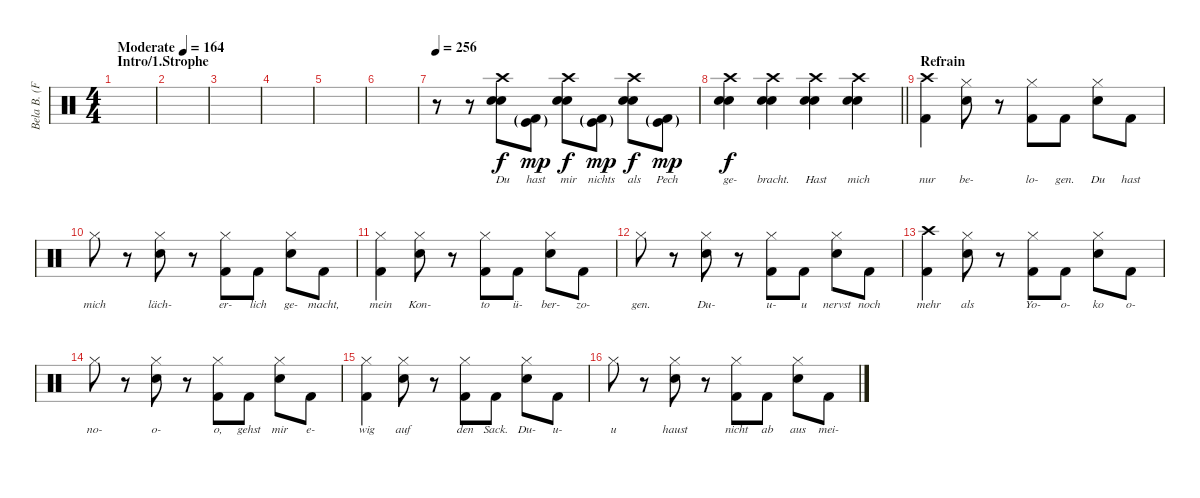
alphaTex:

\track ("Bela B. (Felsenheimer)" "Bela B. (F") {instrument percussion}
\staff {score}
\articulation defaults
\ts (4 4)
\section ("" "Intro/1.Strophe")
\tempo (164 "Moderate")
\clef neutral
\ks c
|
|
|
|
|
|
\tempo 256
r.8 r.8 ("Electric Snare (hit)" "Snare (hit) 2" "Crash high (hit)").8{lyrics (0 "Du") lyrics (1 "") lyrics (2 "") lyrics (3 "") lyrics (4 "")} ("Kick (hit)"{g} "Kick (hit) 2"{g}).8{lyrics (0 "hast") lyrics (1 "") lyrics (2 "") lyrics (3 "") lyrics (4 "") dy mp} ("Electric Snare (hit)" "Snare (hit) 2" "Crash high (hit)").8{lyrics (0 "mir") lyrics (1 "") lyrics (2 "") lyrics (3 "") lyrics (4 "") dy f} ("Kick (hit)"{g} "Kick (hit) 2"{g}).8{lyrics (0 "nichts") lyrics (1 "") lyrics (2 "") lyrics (3 "") lyrics (4 "") dy mp} ("Electric Snare (hit)" "Snare (hit) 2" "Crash high (hit)").8{lyrics (0 "als") lyrics (1 "") lyrics (2 "") lyrics (3 "") lyrics (4 "") dy f} ("Kick (hit)"{g} "Kick (hit) 2"{g}).8{lyrics (0 "Pech") lyrics (1 "") lyrics (2 "") lyrics (3 "") lyrics (4 "") dy mp} |
\barLineRight lightlight
("Electric Snare (hit)" "Snare (hit) 2" "Crash high (hit)").4{lyrics (0 "ge-") lyrics (1 "") lyrics (2 "") lyrics (3 "") lyrics (4 "") dy f} ("Electric Snare (hit)" "Snare (hit) 2" "Crash high (hit)").4{lyrics (0 "bracht.") lyrics (1 "") lyrics (2 "") lyrics (3 "") lyrics (4 "")} ("Electric Snare (hit)" "Snare (hit) 2" "Crash high (hit)").4{lyrics (0 "Hast") lyrics (1 "") lyrics (2 "") lyrics (3 "") lyrics (4 "")} ("Electric Snare (hit)" "Snare (hit) 2" "Crash high (hit)").4{lyrics (0 "mich") lyrics (1 "") lyrics (2 "") lyrics (3 "") lyrics (4 "")} |
\section ("" "Refrain")
("Crash high (hit)" "Kick (hit) 2").4{lyrics (0 "nur") lyrics (1 "") lyrics (2 "") lyrics (3 "") lyrics (4 "")} ("Hi-Hat (closed)" "Snare (hit) 2").8{lyrics (0 "be-") lyrics (1 "") lyrics (2 "") lyrics (3 "") lyrics (4 "")} r.8 ("Hi-Hat (closed)" "Kick (hit) 2").8{lyrics (0 "lo-") lyrics (1 "") lyrics (2 "") lyrics (3 "") lyrics (4 "")} "Kick (hit) 2".8{lyrics (0 "gen.") lyrics (1 "") lyrics (2 "") lyrics (3 "") lyrics (4 "")} ("Hi-Hat (closed)" "Snare (hit) 2").8{lyrics (0 "Du") lyrics (1 "") lyrics (2 "") lyrics (3 "") lyrics (4 "")} "Kick (hit) 2".8{lyrics (0 "hast") lyrics (1 "") lyrics (2 "") lyrics (3 "") lyrics (4 "")} |
"Hi-Hat (closed)".8{lyrics (0 "mich") lyrics (1 "") lyrics (2 "") lyrics (3 "") lyrics (4 "")} r.8 ("Hi-Hat (closed)" "Snare (hit) 2").8{lyrics (0 "läch-") lyrics (1 "") lyrics (2 "") lyrics (3 "") lyrics (4 "")} r.8 ("Hi-Hat (closed)" "Kick (hit) 2").8{lyrics (0 "er-") lyrics (1 "") lyrics (2 "") lyrics (3 "") lyrics (4 "")} "Kick (hit) 2".8{lyrics (0 "lich") lyrics (1 "") lyrics (2 "") lyrics (3 "") lyrics (4 "")} ("Hi-Hat (closed)" "Snare (hit) 2").8{lyrics (0 "ge-") lyrics (1 "") lyrics (2 "") lyrics (3 "") lyrics (4 "")} "Kick (hit) 2".8{lyrics (0 "macht,") lyrics (1 "") lyrics (2 "") lyrics (3 "") lyrics (4 "")} |
("Hi-Hat (closed)" "Kick (hit) 2").4{lyrics (0 "mein") lyrics (1 "") lyrics (2 "") lyrics (3 "") lyrics (4 "")} ("Hi-Hat (closed)" "Snare (hit) 2").8{lyrics (0 "Kon-") lyrics (1 "") lyrics (2 "") lyrics (3 "") lyrics (4 "")} r.8 ("Hi-Hat (closed)" "Kick (hit) 2").8{lyrics (0 "to") lyrics (1 "") lyrics (2 "") lyrics (3 "") lyrics (4 "")} "Kick (hit) 2".8{lyrics (0 "ü-") lyrics (1 "") lyrics (2 "") lyrics (3 "") lyrics (4 "")} ("Hi-Hat (closed)" "Snare (hit) 2").8{lyrics (0 "ber-") lyrics (1 "") lyrics (2 "") lyrics (3 "") lyrics (4 "")} "Kick (hit) 2".8{lyrics (0 "zo-") lyrics (1 "") lyrics (2 "") lyrics (3 "") lyrics (4 "")} |
"Hi-Hat (closed)".8{lyrics (0 "gen.") lyrics (1 "") lyrics (2 "") lyrics (3 "") lyrics (4 "")} r.8 ("Hi-Hat (closed)" "Snare (hit) 2").8{lyrics (0 "Du-") lyrics (1 "") lyrics (2 "") lyrics (3 "") lyrics (4 "")} r.8 ("Hi-Hat (closed)" "Kick (hit) 2").8{lyrics (0 "u-") lyrics (1 "") lyrics (2 "") lyrics (3 "") lyrics (4 "")} "Kick (hit) 2".8{lyrics (0 "u") lyrics (1 "") lyrics (2 "") lyrics (3 "") lyrics (4 "")} ("Hi-Hat (closed)" "Snare (hit) 2").8{lyrics (0 "nervst") lyrics (1 "") lyrics (2 "") lyrics (3 "") lyrics (4 "")} "Kick (hit) 2".8{lyrics (0 "noch") lyrics (1 "") lyrics (2 "") lyrics (3 "") lyrics (4 "")} |
("Crash high (hit)" "Kick (hit) 2").4{lyrics (0 "mehr") lyrics (1 "") lyrics (2 "") lyrics (3 "") lyrics (4 "")} ("Hi-Hat (closed)" "Snare (hit) 2").8{lyrics (0 "als") lyrics (1 "") lyrics (2 "") lyrics (3 "") lyrics (4 "")} r.8 ("Hi-Hat (closed)" "Kick (hit) 2").8{lyrics (0 "Yo-") lyrics (1 "") lyrics (2 "") lyrics (3 "") lyrics (4 "")} "Kick (hit) 2".8{lyrics (0 "o-") lyrics (1 "") lyrics (2 "") lyrics (3 "") lyrics (4 "")} ("Hi-Hat (closed)" "Snare (hit) 2").8{lyrics (0 "ko") lyrics (1 "") lyrics (2 "") lyrics (3 "") lyrics (4 "")} "Kick (hit) 2".8{lyrics (0 "o-") lyrics (1 "") lyrics (2 "") lyrics (3 "") lyrics (4 "")} |
"Hi-Hat (closed)".8{lyrics (0 "no-") lyrics (1 "") lyrics (2 "") lyrics (3 "") lyrics (4 "")} r.8 ("Hi-Hat (closed)" "Snare (hit) 2").8{lyrics (0 "o-") lyrics (1 "") lyrics (2 "") lyrics (3 "") lyrics (4 "")} r.8 ("Hi-Hat (closed)" "Kick (hit) 2").8{lyrics (0 "o,") lyrics (1 "") lyrics (2 "") lyrics (3 "") lyrics (4 "")} "Kick (hit) 2".8{lyrics (0 "gehst") lyrics (1 "") lyrics (2 "") lyrics (3 "") lyrics (4 "")} ("Hi-Hat (closed)" "Snare (hit) 2").8{lyrics (0 "mir") lyrics (1 "") lyrics (2 "") lyrics (3 "") lyrics (4 "")} "Kick (hit) 2".8{lyrics (0 "e-") lyrics (1 "") lyrics (2 "") lyrics (3 "") lyrics (4 "")} |
("Hi-Hat (closed)" "Kick (hit) 2").4{lyrics (0 "wig") lyrics (1 "") lyrics (2 "") lyrics (3 "") lyrics (4 "")} ("Hi-Hat (closed)" "Snare (hit) 2").8{lyrics (0 "auf") lyrics (1 "") lyrics (2 "") lyrics (3 "") lyrics (4 "")} r.8 ("Hi-Hat (closed)" "Kick (hit) 2").8{lyrics (0 "den") lyrics (1 "") lyrics (2 "") lyrics (3 "") lyrics (4 "")} "Kick (hit) 2".8{lyrics (0 "Sack.") lyrics (1 "") lyrics (2 "") lyrics (3 "") lyrics (4 "")} ("Hi-Hat (closed)" "Snare (hit) 2").8{lyrics (0 "Du-") lyrics (1 "") lyrics (2 "") lyrics (3 "") lyrics (4 "")} "Kick (hit) 2".8{lyrics (0 "u-") lyrics (1 "") lyrics (2 "") lyrics (3 "") lyrics (4 "")} |
"Hi-Hat (closed)".8{lyrics (0 "u") lyrics (1 "") lyrics (2 "") lyrics (3 "") lyrics (4 "")} r.8 ("Hi-Hat (closed)" "Snare (hit) 2").8{lyrics (0 "haust") lyrics (1 "") lyrics (2 "") lyrics (3 "") lyrics (4 "")} r.8 ("Hi-Hat (closed)" "Kick (hit) 2").8{lyrics (0 "nicht") lyrics (1 "") lyrics (2 "") lyrics (3 "") lyrics (4 "")} "Kick (hit) 2".8{lyrics (0 "ab") lyrics (1 "") lyrics (2 "") lyrics (3 "") lyrics (4 "")} ("Hi-Hat (closed)" "Snare (hit) 2").8{lyrics (0 "aus") lyrics (1 "") lyrics (2 "") lyrics (3 "") lyrics (4 "")} "Kick (hit) 2".8{lyrics (0 "mei-") lyrics (1 "") lyrics (2 "") lyrics (3 "") lyrics (4 "")}
